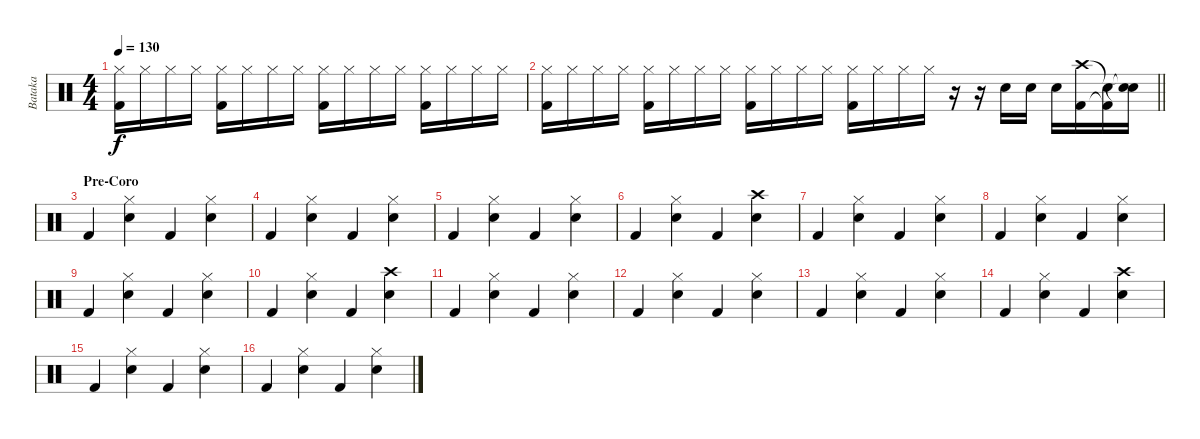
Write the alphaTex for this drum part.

\track ("Bataka" "Bataka") {instrument percussion}
\staff {score}
\articulation defaults
\ts (4 4)
\tempo 130
\clef neutral
\ks c
("Hi-Hat (closed)" "Kick (hit) 2").16{dy f} "Hi-Hat (closed)".16 "Hi-Hat (closed)".16 "Hi-Hat (closed)".16 ("Hi-Hat (closed)" "Kick (hit) 2").16 "Hi-Hat (closed)".16 "Hi-Hat (closed)".16 "Hi-Hat (closed)".16 ("Hi-Hat (closed)" "Kick (hit) 2").16 "Hi-Hat (closed)".16 "Hi-Hat (closed)".16 "Hi-Hat (closed)".16 ("Hi-Hat (closed)" "Kick (hit) 2").16 "Hi-Hat (closed)".16 "Hi-Hat (closed)".16 "Hi-Hat (closed)".16 |
\barLineRight lightlight
("Hi-Hat (closed)" "Kick (hit) 2").16 "Hi-Hat (closed)".16 "Hi-Hat (closed)".16 "Hi-Hat (closed)".16 ("Hi-Hat (closed)" "Kick (hit) 2").16 "Hi-Hat (closed)".16 "Hi-Hat (closed)".16 "Hi-Hat (closed)".16 ("Hi-Hat (closed)" "Kick (hit) 2").16 "Hi-Hat (closed)".16 "Hi-Hat (closed)".16 "Hi-Hat (closed)".16 ("Hi-Hat (closed)" "Kick (hit) 2").16 "Hi-Hat (closed)".16 "Hi-Hat (closed)".16 "Hi-Hat (closed)".16 r.16 r.16 "Snare (hit) 2".16 "Snare (hit) 2".16 "Snare (hit) 2".16 ("Crash high (hit)" "Kick (hit) 2").16 ("Snare (hit)"{t} "Kick (hit) 2"{t}).16 ("Snare (hit)"{t} "Snare (hit)"{t}).16 |
\section ("" "Pre-Coro")
"Kick (hit) 2".4 ("Hi-Hat (closed)" "Snare (hit) 2").4 "Kick (hit) 2".4 ("Hi-Hat (closed)" "Snare (hit) 2").4 |
"Kick (hit) 2".4 ("Hi-Hat (closed)" "Snare (hit) 2").4 "Kick (hit) 2".4 ("Hi-Hat (closed)" "Snare (hit) 2").4 |
"Kick (hit) 2".4 ("Hi-Hat (closed)" "Snare (hit) 2").4 "Kick (hit) 2".4 ("Hi-Hat (closed)" "Snare (hit) 2").4 |
"Kick (hit) 2".4 ("Hi-Hat (closed)" "Snare (hit) 2").4 "Kick (hit) 2".4 ("Crash high (hit)" "Snare (hit) 2").4 |
"Kick (hit) 2".4 ("Hi-Hat (closed)" "Snare (hit) 2").4 "Kick (hit) 2".4 ("Hi-Hat (closed)" "Snare (hit) 2").4 |
"Kick (hit) 2".4 ("Hi-Hat (closed)" "Snare (hit) 2").4 "Kick (hit) 2".4 ("Hi-Hat (closed)" "Snare (hit) 2").4 |
"Kick (hit) 2".4 ("Hi-Hat (closed)" "Snare (hit) 2").4 "Kick (hit) 2".4 ("Hi-Hat (closed)" "Snare (hit) 2").4 |
"Kick (hit) 2".4 ("Hi-Hat (closed)" "Snare (hit) 2").4 "Kick (hit) 2".4 ("Crash high (hit)" "Snare (hit) 2").4 |
"Kick (hit) 2".4 ("Hi-Hat (closed)" "Snare (hit) 2").4 "Kick (hit) 2".4 ("Hi-Hat (closed)" "Snare (hit) 2").4 |
"Kick (hit) 2".4 ("Hi-Hat (closed)" "Snare (hit) 2").4 "Kick (hit) 2".4 ("Hi-Hat (closed)" "Snare (hit) 2").4 |
"Kick (hit) 2".4 ("Hi-Hat (closed)" "Snare (hit) 2").4 "Kick (hit) 2".4 ("Hi-Hat (closed)" "Snare (hit) 2").4 |
"Kick (hit) 2".4 ("Hi-Hat (closed)" "Snare (hit) 2").4 "Kick (hit) 2".4 ("Crash high (hit)" "Snare (hit) 2").4 |
"Kick (hit) 2".4 ("Hi-Hat (closed)" "Snare (hit) 2").4 "Kick (hit) 2".4 ("Hi-Hat (closed)" "Snare (hit) 2").4 |
"Kick (hit) 2".4 ("Hi-Hat (closed)" "Snare (hit) 2").4 "Kick (hit) 2".4 ("Hi-Hat (closed)" "Snare (hit) 2").4
